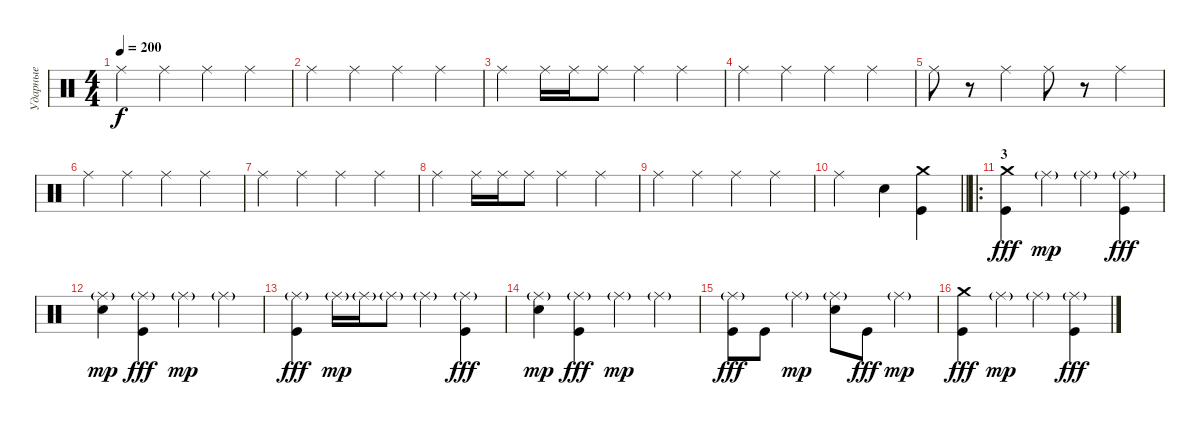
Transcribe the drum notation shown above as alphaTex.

\track ("Ударные" "Ударные") {instrument percussion}
\staff {score}
\articulation defaults
\ts (4 4)
\tempo 200
\clef neutral
\ks c "Ride (middle)".4{dy f} "Ride (middle)".4 "Ride (middle)".4 "Ride (middle)".4
|
"Ride (middle)".4 "Ride (middle)".4 "Ride (middle)".4 "Ride (middle)".4 |
"Ride (middle)".4 "Ride (middle)".16 "Ride (middle)".16 "Ride (middle)".8 "Ride (middle)".4 "Ride (middle)".4 |
"Ride (middle)".4 "Ride (middle)".4 "Ride (middle)".4 "Ride (middle)".4 |
"Ride (middle)".8 r.8 "Ride (middle)".4 "Ride (middle)".8 r.8 "Ride (middle)".4 |
"Ride (middle)".4 "Ride (middle)".4 "Ride (middle)".4 "Ride (middle)".4 |
"Ride (middle)".4 "Ride (middle)".4 "Ride (middle)".4 "Ride (middle)".4 |
"Ride (middle)".4 "Ride (middle)".16 "Ride (middle)".16 "Ride (middle)".8 "Ride (middle)".4 "Ride (middle)".4 |
"Ride (middle)".4 "Ride (middle)".4 "Ride (middle)".4 "Ride (middle)".4 |
\barLineRight lightlight "Ride (middle)".2 "Electric Snare (hit)".4
("Crash medium (hit)" "Kick (hit)").4 |
\ro
\section ("" "3")
("Crash medium (hit)" "Kick (hit)").4{dy fff volume 13} "Ride (middle)"{g}.4{dy mp} "Ride (middle)"{g}.4 ("Ride (middle)"{g} "Kick (hit)").4{dy fff} |
("Ride (middle)"{g} "Electric Snare (hit)").4{dy mp} ("Ride (middle)"{g} "Kick (hit)").4{dy fff} "Ride (middle)"{g}.4{dy mp} "Ride (middle)"{g}.4 |
("Ride (middle)"{g} "Kick (hit)").4{dy fff} "Ride (middle)"{g}.16{dy mp} "Ride (middle)"{g}.16 "Ride (middle)"{g}.8 "Ride (middle)"{g}.4 ("Ride (middle)"{g} "Kick (hit)").4{dy fff} |
("Ride (middle)"{g} "Electric Snare (hit)").4{dy mp} ("Ride (middle)"{g} "Kick (hit)").4{dy fff} "Ride (middle)"{g}.4{dy mp} "Ride (middle)"{g}.4 |
("Ride (middle)"{g} "Kick (hit)").8{dy fff} "Kick (hit)".8 "Ride (middle)"{g}.4{dy mp} ("Ride (middle)"{g} "Electric Snare (hit)").8 "Kick (hit)".8{dy fff} "Ride (middle)"{g}.4{dy mp} |
("Crash medium (hit)" "Kick (hit)").4{dy fff} "Ride (middle)"{g}.4{dy mp} "Ride (middle)"{g}.4 ("Ride (middle)"{g} "Kick (hit)").4{dy fff}
